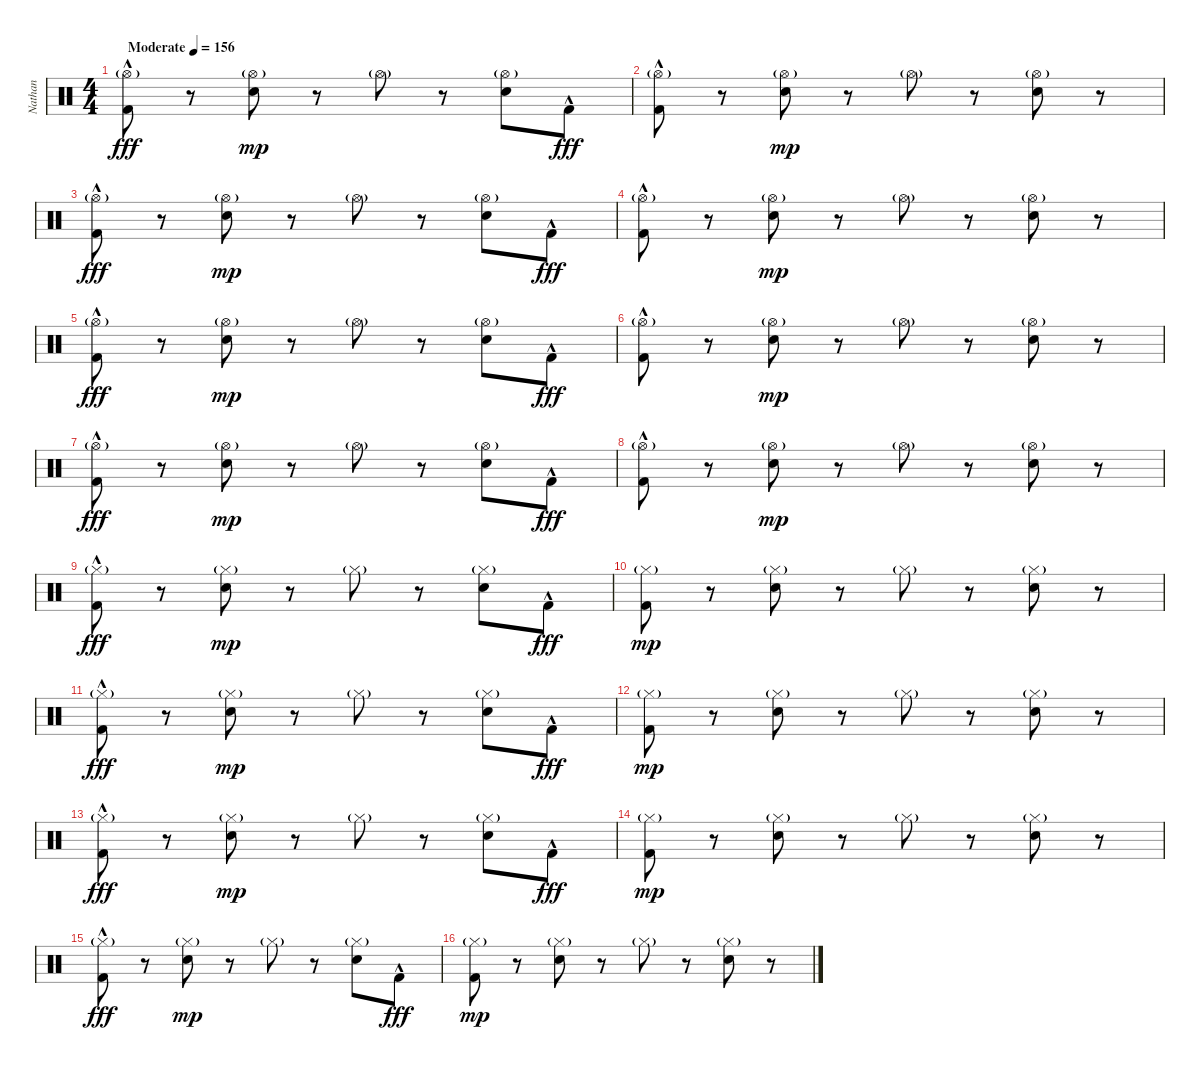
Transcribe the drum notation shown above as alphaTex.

\track ("Nathan" "Nathan") {instrument percussion}
\staff {score}
\articulation defaults
\ts (4 4)
\tempo (156 "Moderate")
\clef neutral
\ks c
("Hi-Hat (open)"{g} "Kick (hit) 2"{hac}).8{dy fff} r.8 ("Hi-Hat (open)"{g} "Snare (hit) 2").8{dy mp} r.8 "Hi-Hat (open)"{g}.8 r.8 ("Hi-Hat (open)"{g} "Snare (hit) 2").8 "Kick (hit) 2"{hac}.8{dy fff} |
("Hi-Hat (open)"{g} "Kick (hit) 2"{hac}).8 r.8 ("Hi-Hat (open)"{g} "Snare (hit) 2").8{dy mp} r.8 "Hi-Hat (open)"{g}.8 r.8 ("Hi-Hat (open)"{g} "Snare (hit) 2").8 r.8 |
("Hi-Hat (open)"{g} "Kick (hit) 2"{hac}).8{dy fff} r.8 ("Hi-Hat (open)"{g} "Snare (hit) 2").8{dy mp} r.8 "Hi-Hat (open)"{g}.8 r.8 ("Hi-Hat (open)"{g} "Snare (hit) 2").8 "Kick (hit) 2"{hac}.8{dy fff} |
("Hi-Hat (open)"{g} "Kick (hit) 2"{hac}).8 r.8 ("Hi-Hat (open)"{g} "Snare (hit) 2").8{dy mp} r.8 "Hi-Hat (open)"{g}.8 r.8 ("Hi-Hat (open)"{g} "Snare (hit) 2").8 r.8 |
("Hi-Hat (open)"{g} "Kick (hit) 2"{hac}).8{dy fff} r.8 ("Hi-Hat (open)"{g} "Snare (hit) 2").8{dy mp} r.8 "Hi-Hat (open)"{g}.8 r.8 ("Hi-Hat (open)"{g} "Snare (hit) 2").8 "Kick (hit) 2"{hac}.8{dy fff} |
("Hi-Hat (open)"{g} "Kick (hit) 2"{hac}).8 r.8 ("Hi-Hat (open)"{g} "Snare (hit) 2").8{dy mp} r.8 "Hi-Hat (open)"{g}.8 r.8 ("Hi-Hat (open)"{g} "Snare (hit) 2").8 r.8 |
("Hi-Hat (open)"{g} "Kick (hit) 2"{hac}).8{dy fff} r.8 ("Hi-Hat (open)"{g} "Snare (hit) 2").8{dy mp} r.8 "Hi-Hat (open)"{g}.8 r.8 ("Hi-Hat (open)"{g} "Snare (hit) 2").8 "Kick (hit) 2"{hac}.8{dy fff} |
("Hi-Hat (open)"{g} "Kick (hit) 2"{hac}).8 r.8 ("Hi-Hat (open)"{g} "Snare (hit) 2").8{dy mp} r.8 "Hi-Hat (open)"{g}.8 r.8 ("Hi-Hat (open)"{g} "Snare (hit) 2").8 r.8 |
("Hi-Hat (closed)"{g} "Kick (hit) 2"{hac}).8{dy fff} r.8 ("Hi-Hat (closed)"{g} "Snare (hit) 2").8{dy mp} r.8 "Hi-Hat (closed)"{g}.8 r.8 ("Hi-Hat (closed)"{g} "Snare (hit) 2").8 "Kick (hit) 2"{hac}.8{dy fff} |
("Hi-Hat (closed)"{g} "Kick (hit) 2").8{dy mp} r.8 ("Hi-Hat (closed)"{g} "Snare (hit) 2").8 r.8 "Hi-Hat (closed)"{g}.8 r.8 ("Hi-Hat (closed)"{g} "Snare (hit) 2").8 r.8 |
("Hi-Hat (closed)"{g} "Kick (hit) 2"{hac}).8{dy fff} r.8 ("Hi-Hat (closed)"{g} "Snare (hit) 2").8{dy mp} r.8 "Hi-Hat (closed)"{g}.8 r.8 ("Hi-Hat (closed)"{g} "Snare (hit) 2").8 "Kick (hit) 2"{hac}.8{dy fff} |
("Hi-Hat (closed)"{g} "Kick (hit) 2").8{dy mp} r.8 ("Hi-Hat (closed)"{g} "Snare (hit) 2").8 r.8 "Hi-Hat (closed)"{g}.8 r.8 ("Hi-Hat (closed)"{g} "Snare (hit) 2").8 r.8 |
("Hi-Hat (closed)"{g} "Kick (hit) 2"{hac}).8{dy fff} r.8 ("Hi-Hat (closed)"{g} "Snare (hit) 2").8{dy mp} r.8 "Hi-Hat (closed)"{g}.8 r.8 ("Hi-Hat (closed)"{g} "Snare (hit) 2").8 "Kick (hit) 2"{hac}.8{dy fff} |
("Hi-Hat (closed)"{g} "Kick (hit) 2").8{dy mp} r.8 ("Hi-Hat (closed)"{g} "Snare (hit) 2").8 r.8 "Hi-Hat (closed)"{g}.8 r.8 ("Hi-Hat (closed)"{g} "Snare (hit) 2").8 r.8 |
("Hi-Hat (closed)"{g} "Kick (hit) 2"{hac}).8{dy fff} r.8 ("Hi-Hat (closed)"{g} "Snare (hit) 2").8{dy mp} r.8 "Hi-Hat (closed)"{g}.8 r.8 ("Hi-Hat (closed)"{g} "Snare (hit) 2").8 "Kick (hit) 2"{hac}.8{dy fff} |
("Hi-Hat (closed)"{g} "Kick (hit) 2").8{dy mp} r.8 ("Hi-Hat (closed)"{g} "Snare (hit) 2").8 r.8 "Hi-Hat (closed)"{g}.8 r.8 ("Hi-Hat (closed)"{g} "Snare (hit) 2").8 r.8
